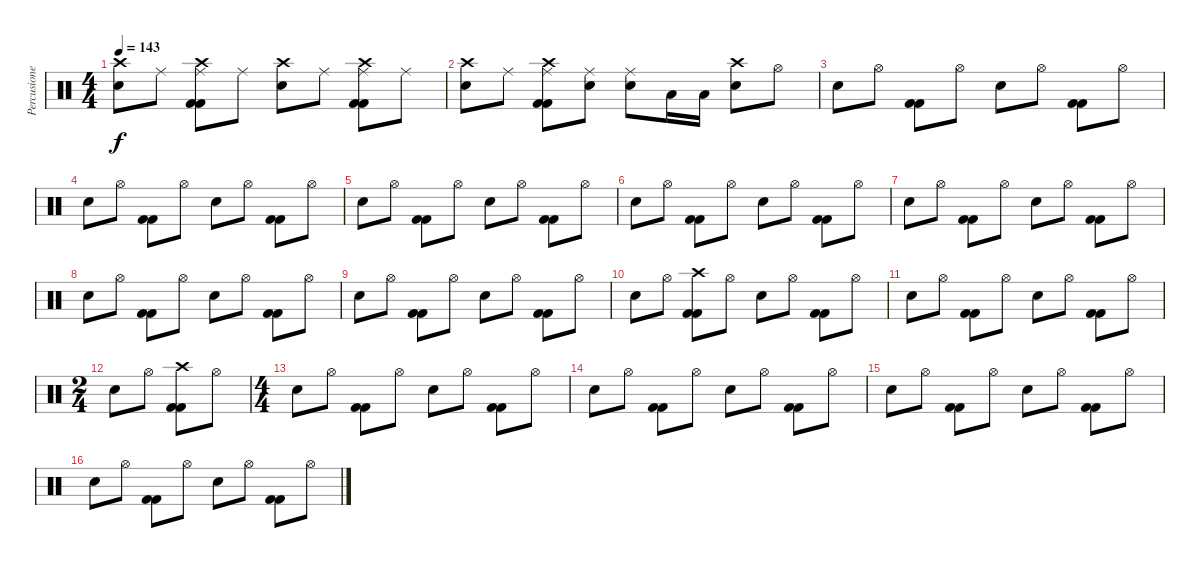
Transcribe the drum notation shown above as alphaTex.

\track ("Percusiones" "Percusione") {instrument percussion}
\staff {score}
\articulation defaults
\ts (4 4)
\tempo 143
\clef neutral
\ks c
("Crash high (hit)" "Snare (hit) 2").8{dy f} "Ride (middle)".8 ("Ride (middle)" "Kick (hit) 2" "Kick (hit) 2" "Crash high (hit)").8 "Ride (middle)".8 ("Crash high (hit)" "Snare (hit) 2").8 "Ride (middle)".8 ("Ride (middle)" "Kick (hit) 2" "Kick (hit) 2" "Crash high (hit)").8 "Ride (middle)".8 |
("Crash high (hit)" "Snare (hit) 2").8 "Ride (middle)".8 ("Ride (middle)" "Kick (hit) 2" "Kick (hit) 2" "Crash high (hit)").8 ("Ride (middle)" "Snare (hit) 2").8 ("Ride (middle)" "Snare (hit) 2").8 "Low Tom (hit)".16 "Low Tom (hit)".16 ("Snare (hit) 2" "Crash high (hit)").8 "Hi-Hat (open)".8 |
"Snare (hit) 2".8 "Hi-Hat (open)".8 ("Kick (hit) 2" "Kick (hit) 2").8 "Hi-Hat (open)".8 "Snare (hit) 2".8 "Hi-Hat (open)".8 ("Kick (hit) 2" "Kick (hit) 2").8 "Hi-Hat (open)".8 |
"Snare (hit) 2".8 "Hi-Hat (open)".8 ("Kick (hit) 2" "Kick (hit) 2").8 "Hi-Hat (open)".8 "Snare (hit) 2".8 "Hi-Hat (open)".8 ("Kick (hit) 2" "Kick (hit) 2").8 "Hi-Hat (open)".8 |
"Snare (hit) 2".8 "Hi-Hat (open)".8 ("Kick (hit) 2" "Kick (hit) 2").8 "Hi-Hat (open)".8 "Snare (hit) 2".8 "Hi-Hat (open)".8 ("Kick (hit) 2" "Kick (hit) 2").8 "Hi-Hat (open)".8 |
"Snare (hit) 2".8 "Hi-Hat (open)".8 ("Kick (hit) 2" "Kick (hit) 2").8 "Hi-Hat (open)".8 "Snare (hit) 2".8 "Hi-Hat (open)".8 ("Kick (hit) 2" "Kick (hit) 2").8 "Hi-Hat (open)".8 |
"Snare (hit) 2".8 "Hi-Hat (open)".8 ("Kick (hit) 2" "Kick (hit) 2").8 "Hi-Hat (open)".8 "Snare (hit) 2".8 "Hi-Hat (open)".8 ("Kick (hit) 2" "Kick (hit) 2").8 "Hi-Hat (open)".8 |
"Snare (hit) 2".8 "Hi-Hat (open)".8 ("Kick (hit) 2" "Kick (hit) 2").8 "Hi-Hat (open)".8 "Snare (hit) 2".8 "Hi-Hat (open)".8 ("Kick (hit) 2" "Kick (hit) 2").8 "Hi-Hat (open)".8 |
"Snare (hit) 2".8 "Hi-Hat (open)".8 ("Kick (hit) 2" "Kick (hit) 2").8 "Hi-Hat (open)".8 "Snare (hit) 2".8 "Hi-Hat (open)".8 ("Kick (hit) 2" "Kick (hit) 2").8 "Hi-Hat (open)".8 |
"Snare (hit) 2".8 "Hi-Hat (open)".8 ("Kick (hit) 2" "Kick (hit) 2" "Crash high (hit)").8 "Hi-Hat (open)".8 "Snare (hit) 2".8 "Hi-Hat (open)".8 ("Kick (hit) 2" "Kick (hit) 2").8 "Hi-Hat (open)".8 |
"Snare (hit) 2".8 "Hi-Hat (open)".8 ("Kick (hit) 2" "Kick (hit) 2").8 "Hi-Hat (open)".8 "Snare (hit) 2".8 "Hi-Hat (open)".8 ("Kick (hit) 2" "Kick (hit) 2").8 "Hi-Hat (open)".8 |
\ts (2 4)
"Snare (hit) 2".8 "Hi-Hat (open)".8 ("Kick (hit) 2" "Kick (hit) 2" "Crash high (hit)").8 "Hi-Hat (open)".8 |
\ts (4 4)
"Snare (hit) 2".8 "Hi-Hat (open)".8 ("Kick (hit) 2" "Kick (hit) 2").8 "Hi-Hat (open)".8 "Snare (hit) 2".8 "Hi-Hat (open)".8 ("Kick (hit) 2" "Kick (hit) 2").8 "Hi-Hat (open)".8 |
"Snare (hit) 2".8 "Hi-Hat (open)".8 ("Kick (hit) 2" "Kick (hit) 2").8 "Hi-Hat (open)".8 "Snare (hit) 2".8 "Hi-Hat (open)".8 ("Kick (hit) 2" "Kick (hit) 2").8 "Hi-Hat (open)".8 |
"Snare (hit) 2".8 "Hi-Hat (open)".8 ("Kick (hit) 2" "Kick (hit) 2").8 "Hi-Hat (open)".8 "Snare (hit) 2".8 "Hi-Hat (open)".8 ("Kick (hit) 2" "Kick (hit) 2").8 "Hi-Hat (open)".8 |
"Snare (hit) 2".8 "Hi-Hat (open)".8 ("Kick (hit) 2" "Kick (hit) 2").8 "Hi-Hat (open)".8 "Snare (hit) 2".8 "Hi-Hat (open)".8 ("Kick (hit) 2" "Kick (hit) 2").8 "Hi-Hat (open)".8
